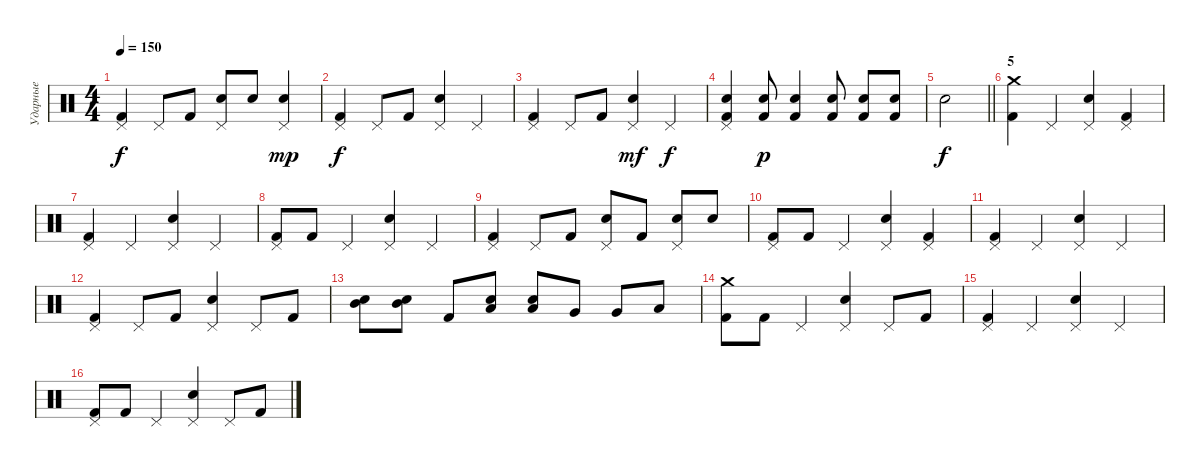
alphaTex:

\track ("Ударные" "Ударные") {mute instrument percussion}
\staff {score}
\articulation defaults
\ts (4 4)
\tempo 150
\clef neutral
\ks c
("Pedal Hi-Hat (hit)" "Kick (hit) 2").4{dy f} "Pedal Hi-Hat (hit)".8 "Kick (hit) 2".8 ("Pedal Hi-Hat (hit)" "Snare (hit) 2").8 "Snare (hit) 2".8 ("Pedal Hi-Hat (hit)" "Snare (hit) 2").4{dy mp} |
("Pedal Hi-Hat (hit)" "Kick (hit) 2").4{dy f} "Pedal Hi-Hat (hit)".8 "Kick (hit) 2".8 ("Pedal Hi-Hat (hit)" "Snare (hit) 2").4 "Pedal Hi-Hat (hit)".4 |
("Pedal Hi-Hat (hit)" "Kick (hit) 2").4 "Pedal Hi-Hat (hit)".8 "Kick (hit) 2".8 ("Pedal Hi-Hat (hit)" "Snare (hit) 2").4{dy mf} "Pedal Hi-Hat (hit)".4{dy f} |
("Pedal Hi-Hat (hit)" "Snare (hit) 2" "Kick (hit) 2").4 ("Snare (hit) 2" "Kick (hit) 2").8{dy p} ("Snare (hit) 2" "Kick (hit) 2").4 ("Snare (hit) 2" "Kick (hit) 2").8 ("Snare (hit) 2" "Kick (hit) 2").8 ("Snare (hit) 2" "Kick (hit) 2").8 |
\barLineRight lightlight "Snare (hit) 2".2{dy f}
|
\section ("" "5")
("Crash medium (hit)" "Kick (hit) 2").4 "Pedal Hi-Hat (hit)".4 ("Pedal Hi-Hat (hit)" "Snare (hit) 2").4 ("Pedal Hi-Hat (hit)" "Kick (hit) 2").4 |
("Pedal Hi-Hat (hit)" "Kick (hit) 2").4 "Pedal Hi-Hat (hit)".4 ("Pedal Hi-Hat (hit)" "Snare (hit) 2").4 "Pedal Hi-Hat (hit)".4 |
("Pedal Hi-Hat (hit)" "Kick (hit) 2").8 "Kick (hit) 2".8 "Pedal Hi-Hat (hit)".4 ("Pedal Hi-Hat (hit)" "Snare (hit) 2").4 "Pedal Hi-Hat (hit)".4 |
("Pedal Hi-Hat (hit)" "Kick (hit) 2").4 "Pedal Hi-Hat (hit)".8 "Kick (hit) 2".8 ("Pedal Hi-Hat (hit)" "Snare (hit) 2").8 "Kick (hit) 2".8 ("Pedal Hi-Hat (hit)" "Snare (hit) 2").8 "Snare (hit) 2".8 |
("Pedal Hi-Hat (hit)" "Kick (hit) 2").8 "Kick (hit) 2".8 "Pedal Hi-Hat (hit)".4 ("Pedal Hi-Hat (hit)" "Snare (hit) 2").4 ("Pedal Hi-Hat (hit)" "Kick (hit) 2").4 |
("Pedal Hi-Hat (hit)" "Kick (hit) 2").4 "Pedal Hi-Hat (hit)".4 ("Pedal Hi-Hat (hit)" "Snare (hit) 2").4 "Pedal Hi-Hat (hit)".4 |
("Pedal Hi-Hat (hit)" "Kick (hit) 2").4 "Pedal Hi-Hat (hit)".8 "Kick (hit) 2".8 ("Pedal Hi-Hat (hit)" "Snare (hit) 2").4 "Pedal Hi-Hat (hit)".8 "Kick (hit) 2".8 |
("Mid Tom (hit)" "Snare (hit) 2").8 ("Mid Tom (hit)" "Snare (hit) 2").8 "Kick (hit) 2".8 ("Low Tom (hit)" "Snare (hit) 2").8 ("Low Tom (hit)" "Snare (hit) 2").8 "Very Low Tom (hit)".8 "Very Low Tom (hit)".8 "Low Floor Tom (hit)".8 |
("Crash medium (hit)" "Kick (hit) 2").8 "Kick (hit) 2".8 "Pedal Hi-Hat (hit)".4 ("Pedal Hi-Hat (hit)" "Snare (hit) 2").4 "Pedal Hi-Hat (hit)".8 "Kick (hit) 2".8 |
("Pedal Hi-Hat (hit)" "Kick (hit) 2").4 "Pedal Hi-Hat (hit)".4 ("Pedal Hi-Hat (hit)" "Snare (hit) 2").4 "Pedal Hi-Hat (hit)".4 |
("Pedal Hi-Hat (hit)" "Kick (hit) 2").8 "Kick (hit) 2".8 "Pedal Hi-Hat (hit)".4 ("Pedal Hi-Hat (hit)" "Snare (hit) 2").4 "Pedal Hi-Hat (hit)".8 "Kick (hit) 2".8
